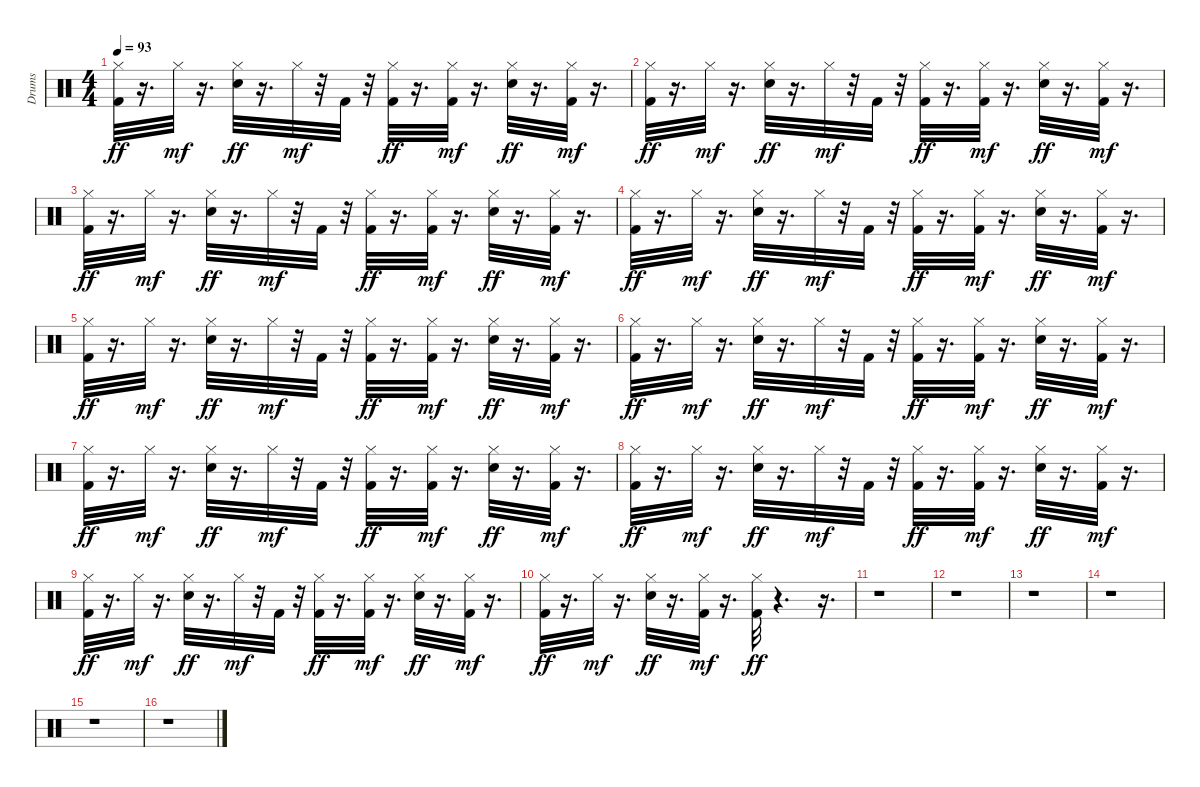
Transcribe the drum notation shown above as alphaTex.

\track ("Drums" "Drums") {instrument percussion}
\staff {score}
\articulation defaults
\ts (4 4)
\tempo 93
\clef neutral
\ks c
("Kick (hit) 2" "Hi-Hat (closed)").32{dy ff} r.16{d} "Hi-Hat (closed)".32{dy mf} r.16{d} ("Snare (hit) 2" "Hi-Hat (closed)").32{dy ff} r.16{d} "Hi-Hat (closed)".32{dy mf} r.32 "Kick (hit) 2".32 r.32 ("Kick (hit) 2" "Hi-Hat (closed)").32{dy ff} r.16{d} ("Kick (hit) 2" "Hi-Hat (closed)").32{dy mf} r.16{d} ("Snare (hit) 2" "Hi-Hat (closed)").32{dy ff} r.16{d} ("Kick (hit) 2" "Hi-Hat (closed)").32{dy mf} r.16{d} |
("Kick (hit) 2" "Hi-Hat (closed)").32{dy ff} r.16{d} "Hi-Hat (closed)".32{dy mf} r.16{d} ("Snare (hit) 2" "Hi-Hat (closed)").32{dy ff} r.16{d} "Hi-Hat (closed)".32{dy mf} r.32 "Kick (hit) 2".32 r.32 ("Kick (hit) 2" "Hi-Hat (closed)").32{dy ff} r.16{d} ("Kick (hit) 2" "Hi-Hat (closed)").32{dy mf} r.16{d} ("Snare (hit) 2" "Hi-Hat (closed)").32{dy ff} r.16{d} ("Kick (hit) 2" "Hi-Hat (closed)").32{dy mf} r.16{d} |
("Kick (hit) 2" "Hi-Hat (closed)").32{dy ff} r.16{d} "Hi-Hat (closed)".32{dy mf} r.16{d} ("Snare (hit) 2" "Hi-Hat (closed)").32{dy ff} r.16{d} "Hi-Hat (closed)".32{dy mf} r.32 "Kick (hit) 2".32 r.32 ("Kick (hit) 2" "Hi-Hat (closed)").32{dy ff} r.16{d} ("Kick (hit) 2" "Hi-Hat (closed)").32{dy mf} r.16{d} ("Snare (hit) 2" "Hi-Hat (closed)").32{dy ff} r.16{d} ("Kick (hit) 2" "Hi-Hat (closed)").32{dy mf} r.16{d} |
("Kick (hit) 2" "Hi-Hat (closed)").32{dy ff} r.16{d} "Hi-Hat (closed)".32{dy mf} r.16{d} ("Snare (hit) 2" "Hi-Hat (closed)").32{dy ff} r.16{d} "Hi-Hat (closed)".32{dy mf} r.32 "Kick (hit) 2".32 r.32 ("Kick (hit) 2" "Hi-Hat (closed)").32{dy ff} r.16{d} ("Kick (hit) 2" "Hi-Hat (closed)").32{dy mf} r.16{d} ("Snare (hit) 2" "Hi-Hat (closed)").32{dy ff} r.16{d} ("Kick (hit) 2" "Hi-Hat (closed)").32{dy mf} r.16{d} |
("Kick (hit) 2" "Hi-Hat (closed)").32{dy ff} r.16{d} "Hi-Hat (closed)".32{dy mf} r.16{d} ("Snare (hit) 2" "Hi-Hat (closed)").32{dy ff} r.16{d} "Hi-Hat (closed)".32{dy mf} r.32 "Kick (hit) 2".32 r.32 ("Kick (hit) 2" "Hi-Hat (closed)").32{dy ff} r.16{d} ("Kick (hit) 2" "Hi-Hat (closed)").32{dy mf} r.16{d} ("Snare (hit) 2" "Hi-Hat (closed)").32{dy ff} r.16{d} ("Kick (hit) 2" "Hi-Hat (closed)").32{dy mf} r.16{d} |
("Kick (hit) 2" "Hi-Hat (closed)").32{dy ff} r.16{d} "Hi-Hat (closed)".32{dy mf} r.16{d} ("Snare (hit) 2" "Hi-Hat (closed)").32{dy ff} r.16{d} "Hi-Hat (closed)".32{dy mf} r.32 "Kick (hit) 2".32 r.32 ("Kick (hit) 2" "Hi-Hat (closed)").32{dy ff} r.16{d} ("Kick (hit) 2" "Hi-Hat (closed)").32{dy mf} r.16{d} ("Snare (hit) 2" "Hi-Hat (closed)").32{dy ff} r.16{d} ("Kick (hit) 2" "Hi-Hat (closed)").32{dy mf} r.16{d} |
("Kick (hit) 2" "Hi-Hat (closed)").32{dy ff} r.16{d} "Hi-Hat (closed)".32{dy mf} r.16{d} ("Snare (hit) 2" "Hi-Hat (closed)").32{dy ff} r.16{d} "Hi-Hat (closed)".32{dy mf} r.32 "Kick (hit) 2".32 r.32 ("Kick (hit) 2" "Hi-Hat (closed)").32{dy ff} r.16{d} ("Kick (hit) 2" "Hi-Hat (closed)").32{dy mf} r.16{d} ("Snare (hit) 2" "Hi-Hat (closed)").32{dy ff} r.16{d} ("Kick (hit) 2" "Hi-Hat (closed)").32{dy mf} r.16{d} |
("Kick (hit) 2" "Hi-Hat (closed)").32{dy ff} r.16{d} "Hi-Hat (closed)".32{dy mf} r.16{d} ("Snare (hit) 2" "Hi-Hat (closed)").32{dy ff} r.16{d} "Hi-Hat (closed)".32{dy mf} r.32 "Kick (hit) 2".32 r.32 ("Kick (hit) 2" "Hi-Hat (closed)").32{dy ff} r.16{d} ("Kick (hit) 2" "Hi-Hat (closed)").32{dy mf} r.16{d} ("Snare (hit) 2" "Hi-Hat (closed)").32{dy ff} r.16{d} ("Kick (hit) 2" "Hi-Hat (closed)").32{dy mf} r.16{d} |
("Kick (hit) 2" "Hi-Hat (closed)").32{dy ff} r.16{d} "Hi-Hat (closed)".32{dy mf} r.16{d} ("Snare (hit) 2" "Hi-Hat (closed)").32{dy ff} r.16{d} "Hi-Hat (closed)".32{dy mf} r.32 "Kick (hit) 2".32 r.32 ("Kick (hit) 2" "Hi-Hat (closed)").32{dy ff} r.16{d} ("Kick (hit) 2" "Hi-Hat (closed)").32{dy mf} r.16{d} ("Snare (hit) 2" "Hi-Hat (closed)").32{dy ff} r.16{d} ("Kick (hit) 2" "Hi-Hat (closed)").32{dy mf} r.16{d} |
("Kick (hit) 2" "Hi-Hat (closed)").32{dy ff} r.16{d} "Hi-Hat (closed)".32{dy mf} r.16{d} ("Snare (hit) 2" "Hi-Hat (closed)").32{dy ff} r.16{d} ("Kick (hit) 2" "Hi-Hat (closed)").32{dy mf} r.16{d} ("Kick (hit) 2" "Hi-Hat (closed)").32{dy ff} r.4{d} r.16{d} |
r.1 |
r.1 |
r.1 |
r.1 |
r.1 |
r.1
